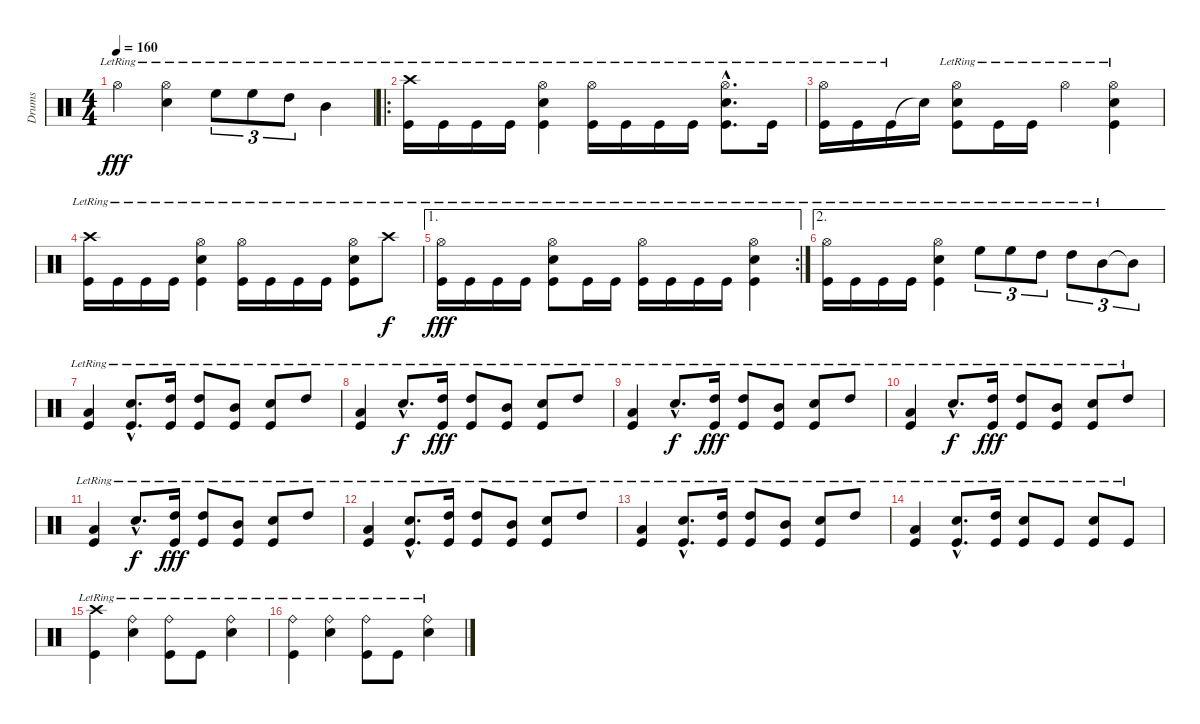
\track ("Drums" "Drums") {instrument percussion}
\staff {score}
\articulation defaults
\ts (4 4)
\tempo 160
\clef neutral
\ks c "Hi-Hat (open)"{lr}.4{dy fff}
("Hi-Hat (open)"{lr} "Snare (hit) 2"{lr}).4 "High Floor Tom (hit)"{lr}.8{tu (3 2)} "High Floor Tom (hit)"{lr}.8{tu (3 2)} "High Tom (hit)"{lr}.8{tu (3 2)} "Mid Tom (hit)"{lr}.4 |
\ro
("Crash high (hit)"{lr} "Kick (hit)"{lr}).16 "Kick (hit)"{lr}.16 "Kick (hit)"{lr}.16 "Kick (hit)"{lr}.16 ("Hi-Hat (open)"{lr} "Snare (hit) 2"{lr} "Kick (hit)"{lr}).4 ("Hi-Hat (open)"{lr} "Kick (hit)"{lr}).16 "Kick (hit)"{lr}.16 "Kick (hit)"{lr}.16 "Kick (hit)"{lr}.16 ("Hi-Hat (open)"{hac lr} "Snare (hit) 2"{hac lr} "Kick (hit)"{hac lr}).8{d} "Kick (hit)"{lr}.16 |
("Hi-Hat (open)"{lr} "Kick (hit)"{lr}).16 "Kick (hit)"{lr}.16 "Kick (hit)"{lr}.16 "Snare (hit)"{t}.16 ("Hi-Hat (open)"{lr} "Snare (hit) 2"{lr} "Kick (hit)"{lr}).8 "Kick (hit)"{lr}.16 "Kick (hit)"{lr}.16 "Hi-Hat (open)"{lr}.4 ("Hi-Hat (open)"{lr} "Snare (hit) 2"{lr} "Kick (hit)"{lr}).4 |
("Crash high (hit)"{lr} "Kick (hit)"{lr}).16 "Kick (hit)"{lr}.16 "Kick (hit)"{lr}.16 "Kick (hit)"{lr}.16 ("Hi-Hat (open)"{lr} "Snare (hit) 2"{lr} "Kick (hit)"{lr}).4 ("Hi-Hat (open)"{lr} "Kick (hit)"{lr}).16 "Kick (hit)"{lr}.16 "Kick (hit)"{lr}.16 "Kick (hit)"{lr}.16 ("Hi-Hat (open)"{lr} "Snare (hit) 2"{lr} "Kick (hit)"{lr}).8 "Crash high (hit)"{lr}.8{dy f} |
\ae 1
\rc 2
("Hi-Hat (open)"{lr} "Kick (hit)"{lr}).16{dy fff} "Kick (hit)"{lr}.16 "Kick (hit)"{lr}.16 "Kick (hit)"{lr}.16 ("Hi-Hat (open)"{lr} "Snare (hit) 2"{lr} "Kick (hit)"{lr}).8 "Kick (hit)"{lr}.16 "Kick (hit)"{lr}.16 ("Hi-Hat (open)"{lr} "Kick (hit)"{lr}).16 "Kick (hit)"{lr}.16 "Kick (hit)"{lr}.16 "Kick (hit)"{lr}.16 ("Hi-Hat (open)"{lr} "Snare (hit) 2"{lr} "Kick (hit)"{lr}).4 |
\ae 2
("Hi-Hat (open)"{lr} "Kick (hit)"{lr}).16 "Kick (hit)"{lr}.16 "Kick (hit)"{lr}.16 "Kick (hit)"{lr}.16 ("Hi-Hat (open)"{lr} "Snare (hit) 2"{lr} "Kick (hit)"{lr}).4 "High Floor Tom (hit)"{lr}.8{tu (3 2)} "High Floor Tom (hit)"{lr}.8{tu (3 2)} "High Tom (hit)"{lr}.8{tu (3 2)} "High Tom (hit)"{lr}.8{tu (3 2)} "Mid Tom (hit)"{lr}.8{tu (3 2)} "Mid Tom (hit)"{t}.8{tu (3 2)} |
("Low Floor Tom (hit)"{lr} "Kick (hit)"{lr}).4 ("Snare (hit) 2"{hac lr} "Kick (hit)"{hac lr}).8{d} ("High Tom (hit)"{lr} "Kick (hit)"{lr}).16 ("High Tom (hit)"{lr} "Kick (hit)"{lr}).8 ("Mid Tom (hit)"{lr} "Kick (hit)"{lr}).8 ("Snare (hit) 2"{lr} "Kick (hit)"{lr}).8 "High Tom (hit)"{lr}.8 |
("Low Floor Tom (hit)"{lr} "Kick (hit)"{lr}).4 "Snare (hit) 2"{hac lr}.8{d dy f} ("High Tom (hit)"{lr} "Kick (hit)"{lr}).16{dy fff} ("High Tom (hit)"{lr} "Kick (hit)"{lr}).8 ("Mid Tom (hit)"{lr} "Kick (hit)"{lr}).8 ("Snare (hit) 2"{lr} "Kick (hit)"{lr}).8 "High Tom (hit)"{lr}.8 |
("Low Floor Tom (hit)"{lr} "Kick (hit)"{lr}).4 "Snare (hit) 2"{hac lr}.8{d dy f} ("High Tom (hit)"{lr} "Kick (hit)"{lr}).16{dy fff} ("High Tom (hit)"{lr} "Kick (hit)"{lr}).8 ("Mid Tom (hit)"{lr} "Kick (hit)"{lr}).8 ("Snare (hit) 2"{lr} "Kick (hit)"{lr}).8 "High Tom (hit)"{lr}.8 |
("Low Floor Tom (hit)"{lr} "Kick (hit)"{lr}).4 "Snare (hit) 2"{hac lr}.8{d dy f} ("High Tom (hit)"{lr} "Kick (hit)"{lr}).16{dy fff} ("High Tom (hit)"{lr} "Kick (hit)"{lr}).8 ("Mid Tom (hit)"{lr} "Kick (hit)"{lr}).8 ("Snare (hit) 2"{lr} "Kick (hit)"{lr}).8 "High Tom (hit)"{lr}.8 |
("Low Floor Tom (hit)"{lr} "Kick (hit)"{lr}).4 "Snare (hit) 2"{hac lr}.8{d dy f} ("High Tom (hit)"{lr} "Kick (hit)"{lr}).16{dy fff} ("High Tom (hit)"{lr} "Kick (hit)"{lr}).8 ("Mid Tom (hit)"{lr} "Kick (hit)"{lr}).8 ("Snare (hit) 2"{lr} "Kick (hit)"{lr}).8 "High Tom (hit)"{lr}.8 |
("Low Floor Tom (hit)"{lr} "Kick (hit)"{lr}).4 ("Snare (hit) 2"{hac lr} "Kick (hit)"{hac lr}).8{d} ("High Tom (hit)"{lr} "Kick (hit)"{lr}).16 ("High Tom (hit)"{lr} "Kick (hit)"{lr}).8 ("Mid Tom (hit)"{lr} "Kick (hit)"{lr}).8 ("Snare (hit) 2"{lr} "Kick (hit)"{lr}).8 "High Tom (hit)"{lr}.8 |
("Low Floor Tom (hit)"{lr} "Kick (hit)"{lr}).4 ("Snare (hit) 2"{hac lr} "Kick (hit)"{hac lr}).8{d} ("High Tom (hit)"{lr} "Kick (hit)"{lr}).16 ("High Tom (hit)"{lr} "Kick (hit)"{lr}).8 ("Mid Tom (hit)"{lr} "Kick (hit)"{lr}).8 ("Snare (hit) 2"{lr} "Kick (hit)"{lr}).8 "High Tom (hit)"{lr}.8 |
("Low Floor Tom (hit)"{lr} "Kick (hit)"{lr}).4 ("Snare (hit) 2"{hac lr} "Kick (hit)"{hac lr}).8{d} ("High Tom (hit)"{lr} "Kick (hit)"{lr}).16 ("Snare (hit) 2"{lr} "Kick (hit)"{lr}).8 "Kick (hit)"{lr}.8 ("Snare (hit) 2"{lr} "Kick (hit)"{lr}).8 "Kick (hit)"{lr}.8 |
("Crash high (hit)"{lr} "Kick (hit)"{lr}).4 ("Ride (bell)"{lr} "Snare (hit) 2"{lr}).4 ("Ride (bell)"{lr} "Kick (hit)"{lr}).8 "Kick (hit)"{lr}.8 ("Ride (bell)"{lr} "Snare (hit) 2"{lr}).4 |
("Ride (bell)"{lr} "Kick (hit)"{lr}).4 ("Ride (bell)"{lr} "Snare (hit) 2"{lr}).4 ("Ride (bell)"{lr} "Kick (hit)"{lr}).8 "Kick (hit)"{lr}.8 ("Ride (bell)"{lr} "Snare (hit) 2"{lr}).4
